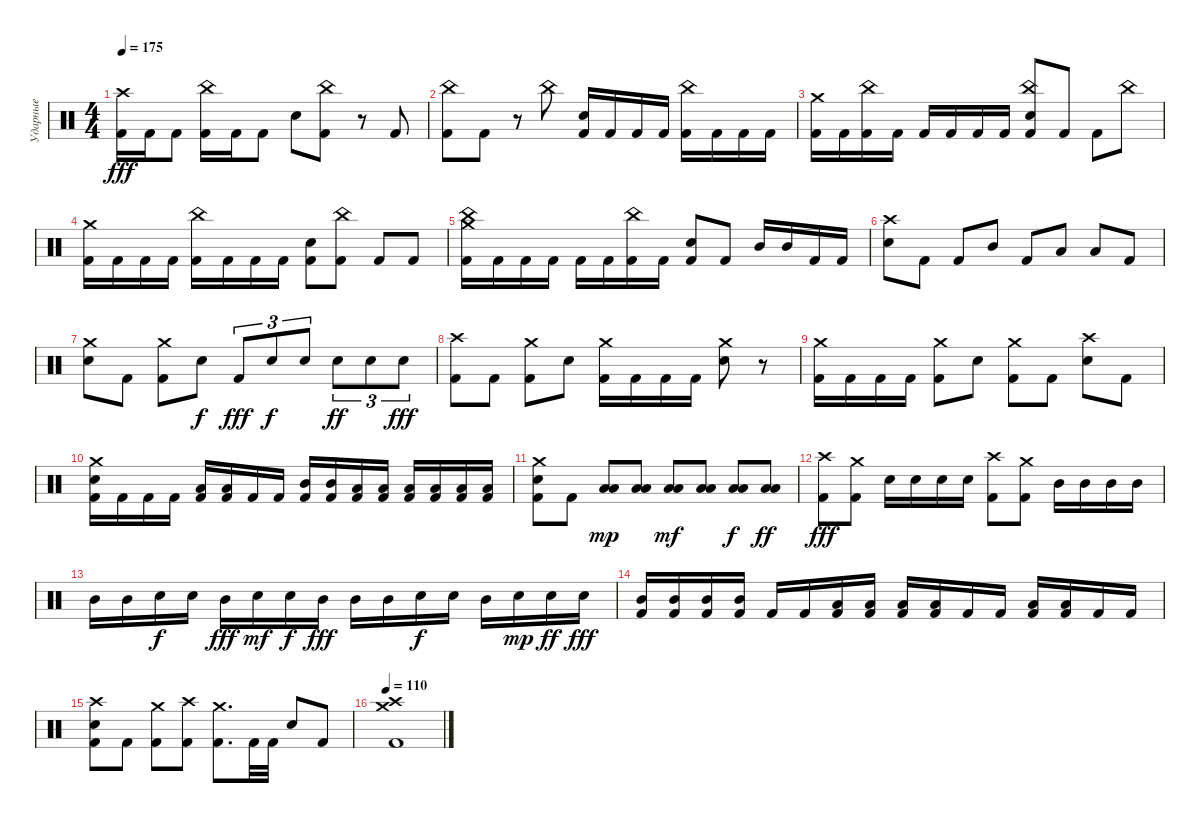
\track ("Ударные" "Ударные") {instrument percussion}
\staff {score}
\articulation defaults
\ts (4 4)
\tempo 175
\clef neutral
\ks c
("Crash high (hit)" "Kick (hit) 2").16{dy fff} "Kick (hit) 2".16 "Kick (hit) 2".8 ("China (hit)" "Kick (hit) 2").16 "Kick (hit) 2".16 "Kick (hit) 2".8 "Electric Snare (hit)".8 ("China (hit)" "Kick (hit) 2").8 r.8 "Kick (hit) 2".8 |
("China (hit)" "Kick (hit) 2").8 "Kick (hit) 2".8 r.8 "China (hit)".8 ("Electric Snare (hit)" "Kick (hit) 2").16 "Kick (hit) 2".16 "Kick (hit) 2".16 "Kick (hit) 2".16 ("China (hit)" "Kick (hit) 2").16 "Kick (hit) 2".16 "Kick (hit) 2".16 "Kick (hit) 2".16 |
("Crash medium (hit)" "Kick (hit) 2").16 "Kick (hit) 2".16 ("China (hit)" "Kick (hit) 2").16 "Kick (hit) 2".16 "Kick (hit) 2".16 "Kick (hit) 2".16 "Kick (hit) 2".16 "Kick (hit) 2".16 ("China (hit)" "Electric Snare (hit)" "Kick (hit) 2").8 "Kick (hit) 2".8 "Kick (hit) 2".8 "China (hit)".8 |
("Crash medium (hit)" "Kick (hit) 2").16 "Kick (hit) 2".16 "Kick (hit) 2".16 "Kick (hit) 2".16 ("China (hit)" "Kick (hit) 2").16 "Kick (hit) 2".16 "Kick (hit) 2".16 "Kick (hit) 2".16 ("Electric Snare (hit)" "Kick (hit) 2").8 ("China (hit)" "Kick (hit) 2").8 "Kick (hit) 2".8 "Kick (hit) 2".8 |
("Crash medium (hit)" "China (hit)" "Kick (hit) 2").16 "Kick (hit) 2".16 "Kick (hit) 2".16 "Kick (hit) 2".16 "Kick (hit) 2".16 "Kick (hit) 2".16 ("China (hit)" "Kick (hit) 2").16 "Kick (hit) 2".16 ("Electric Snare (hit)" "Kick (hit) 2").8 "Kick (hit) 2".8 "Mid Tom (hit)".16 "Mid Tom (hit)".16 "Kick (hit) 2".16 "Kick (hit) 2".16 |
("Crash high (hit)" "Electric Snare (hit)").8 "Kick (hit) 2".8 "Kick (hit) 2".8 "Mid Tom (hit)".8 "Kick (hit) 2".8 "Low Floor Tom (hit)".8 "Low Floor Tom (hit)".8 "Kick (hit) 2".8 |
("Crash medium (hit)" "Electric Snare (hit)").8 "Kick (hit) 2".8 ("Crash medium (hit)" "Kick (hit) 2").8 "Electric Snare (hit)".8{dy f} "Kick (hit) 2".8{tu (3 2) dy fff} "Electric Snare (hit)".8{tu (3 2) dy f} "Electric Snare (hit)".8{tu (3 2)} "Electric Snare (hit)".8{tu (3 2) dy ff} "Electric Snare (hit)".8{tu (3 2)} "Electric Snare (hit)".8{tu (3 2) dy fff} |
("Crash high (hit)" "Kick (hit) 2").8 "Kick (hit) 2".8 ("Crash medium (hit)" "Kick (hit) 2").8 "Electric Snare (hit)".8 ("Crash medium (hit)" "Kick (hit) 2").16 "Kick (hit) 2".16 "Kick (hit) 2".16 "Kick (hit) 2".16 ("Crash medium (hit)" "Electric Snare (hit)").8 r.8 |
("Crash medium (hit)" "Kick (hit) 2").16 "Kick (hit) 2".16 "Kick (hit) 2".16 "Kick (hit) 2".16 ("Crash medium (hit)" "Kick (hit) 2").8 "Electric Snare (hit)".8 ("Crash medium (hit)" "Kick (hit) 2").8 "Kick (hit) 2".8 ("Crash high (hit)" "Electric Snare (hit)").8 "Kick (hit) 2".8 |
("Crash medium (hit)" "Electric Snare (hit)" "Kick (hit) 2").16 "Kick (hit) 2".16 "Kick (hit) 2".16 "Kick (hit) 2".16 ("Low Floor Tom (hit)" "Kick (hit) 2").16 ("Low Floor Tom (hit)" "Kick (hit) 2").16 "Kick (hit) 2".16 "Kick (hit) 2".16 ("Mid Tom (hit)" "Kick (hit) 2").16 ("Mid Tom (hit)" "Kick (hit) 2").16 ("Low Tom (hit)" "Kick (hit) 2").16 ("Low Tom (hit)" "Kick (hit) 2").16 ("Low Floor Tom (hit)" "Kick (hit) 2").16 ("Low Floor Tom (hit)" "Kick (hit) 2").16 ("Low Floor Tom (hit)" "Kick (hit) 2").16 ("Low Floor Tom (hit)" "Kick (hit) 2").16 |
("Crash medium (hit)" "Electric Snare (hit)" "Kick (hit) 2").8 "Kick (hit) 2".8 ("Low Tom (hit)" "Low Floor Tom (hit)").8{dy mp} ("Low Tom (hit)" "Low Floor Tom (hit)").8 ("Low Tom (hit)" "Low Floor Tom (hit)").8{dy mf} ("Low Tom (hit)" "Low Floor Tom (hit)").8 ("Low Tom (hit)" "Low Floor Tom (hit)").8{dy f} ("Low Tom (hit)" "Low Floor Tom (hit)").8{dy ff} |
("Crash high (hit)" "Kick (hit) 2").8{dy fff} ("Crash medium (hit)" "Kick (hit) 2").8 "Electric Snare (hit)".16 "Electric Snare (hit)".16 "Electric Snare (hit)".16 "Electric Snare (hit)".16 ("Crash high (hit)" "Kick (hit) 2").8 ("Crash medium (hit)" "Kick (hit) 2").8 "Mid Tom (hit)".16 "Mid Tom (hit)".16 "Mid Tom (hit)".16 "Mid Tom (hit)".16 |
"Mid Tom (hit)".16 "Mid Tom (hit)".16 "Electric Snare (hit)".16{dy f} "Electric Snare (hit)".16 "Mid Tom (hit)".16{dy fff} "Electric Snare (hit)".16{dy mf} "Electric Snare (hit)".16{dy f} "Mid Tom (hit)".16{dy fff} "Mid Tom (hit)".16 "Mid Tom (hit)".16 "Electric Snare (hit)".16{dy f} "Electric Snare (hit)".16 "Mid Tom (hit)".16 "Electric Snare (hit)".16{dy mp} "Electric Snare (hit)".16{dy ff} "Electric Snare (hit)".16{dy fff} |
("Mid Tom (hit)" "Kick (hit) 2").16 ("Mid Tom (hit)" "Kick (hit) 2").16 ("Mid Tom (hit)" "Kick (hit) 2").16 ("Mid Tom (hit)" "Kick (hit) 2").16 "Kick (hit) 2".16 "Kick (hit) 2".16 ("Low Tom (hit)" "Kick (hit) 2").16 ("Low Tom (hit)" "Kick (hit) 2").16 ("Low Tom (hit)" "Kick (hit) 2").16 ("Low Tom (hit)" "Kick (hit) 2").16 "Kick (hit) 2".16 "Kick (hit) 2".16 ("Low Floor Tom (hit)" "Kick (hit) 2").16 ("Low Floor Tom (hit)" "Kick (hit) 2").16 "Kick (hit) 2".16 "Kick (hit) 2".16 |
("Crash high (hit)" "Electric Snare (hit)" "Kick (hit) 2").8 "Kick (hit) 2".8 ("Crash medium (hit)" "Kick (hit) 2").8 ("Crash high (hit)" "Kick (hit) 2").8 ("Crash medium (hit)" "Kick (hit) 2").8{d} "Kick (hit) 2".32 "Kick (hit) 2".32 "Electric Snare (hit)".8 "Kick (hit) 2".8 |
\tempo 110
("Crash high (hit)" "Crash medium (hit)" "Kick (hit) 2").1
